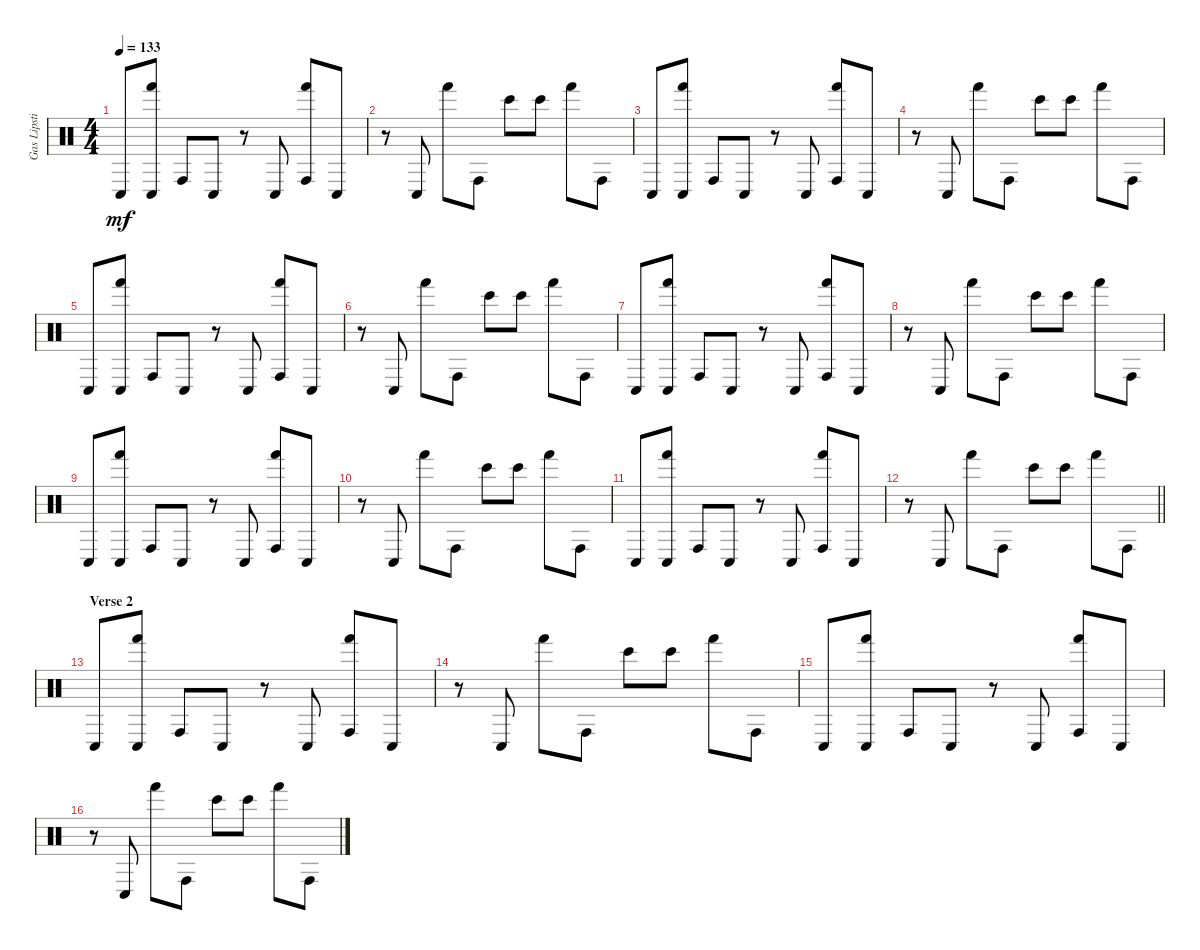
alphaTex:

\track ("Gas Lipstick (Drums)" "Gas Lipsti") {instrument percussion}
\staff {score}
\articulation defaults
\ts (4 4)
\tempo 133
\clef neutral
\ks c "Conga low (hit)".8{dy mf}
("Hand (hit)" "Conga low (hit)").8 "Conga high (hit)".8 "Conga low (hit)".8 r.8 "Conga low (hit)".8 ("Hand (hit)" "Conga high (hit)").8 "Conga low (hit)".8 |
r.8 "Conga low (hit)".8 "Hand (hit)".8 "Conga high (hit)".8 "Bongo High (hit)".8 "Bongo High (hit)".8 "Hand (hit)".8 "Conga high (hit)".8 |
"Conga low (hit)".8 ("Hand (hit)" "Conga low (hit)").8 "Conga high (hit)".8 "Conga low (hit)".8 r.8 "Conga low (hit)".8 ("Hand (hit)" "Conga high (hit)").8 "Conga low (hit)".8 |
r.8 "Conga low (hit)".8 "Hand (hit)".8 "Conga high (hit)".8 "Bongo High (hit)".8 "Bongo High (hit)".8 "Hand (hit)".8 "Conga high (hit)".8 |
"Conga low (hit)".8 ("Hand (hit)" "Conga low (hit)").8 "Conga high (hit)".8 "Conga low (hit)".8 r.8 "Conga low (hit)".8 ("Hand (hit)" "Conga high (hit)").8 "Conga low (hit)".8 |
r.8 "Conga low (hit)".8 "Hand (hit)".8 "Conga high (hit)".8 "Bongo High (hit)".8 "Bongo High (hit)".8 "Hand (hit)".8 "Conga high (hit)".8 |
"Conga low (hit)".8 ("Hand (hit)" "Conga low (hit)").8 "Conga high (hit)".8 "Conga low (hit)".8 r.8 "Conga low (hit)".8 ("Hand (hit)" "Conga high (hit)").8 "Conga low (hit)".8 |
r.8 "Conga low (hit)".8 "Hand (hit)".8 "Conga high (hit)".8 "Bongo High (hit)".8 "Bongo High (hit)".8 "Hand (hit)".8 "Conga high (hit)".8 |
"Conga low (hit)".8 ("Hand (hit)" "Conga low (hit)").8 "Conga high (hit)".8 "Conga low (hit)".8 r.8 "Conga low (hit)".8 ("Hand (hit)" "Conga high (hit)").8 "Conga low (hit)".8 |
r.8 "Conga low (hit)".8 "Hand (hit)".8 "Conga high (hit)".8 "Bongo High (hit)".8 "Bongo High (hit)".8 "Hand (hit)".8 "Conga high (hit)".8 |
"Conga low (hit)".8 ("Hand (hit)" "Conga low (hit)").8 "Conga high (hit)".8 "Conga low (hit)".8 r.8 "Conga low (hit)".8 ("Hand (hit)" "Conga high (hit)").8 "Conga low (hit)".8 |
\barLineRight lightlight
r.8 "Conga low (hit)".8 "Hand (hit)".8 "Conga high (hit)".8 "Bongo High (hit)".8 "Bongo High (hit)".8 "Hand (hit)".8 "Conga high (hit)".8 |
\section ("" "Verse 2")
"Conga low (hit)".8 ("Hand (hit)" "Conga low (hit)").8 "Conga high (hit)".8 "Conga low (hit)".8 r.8 "Conga low (hit)".8 ("Hand (hit)" "Conga high (hit)").8 "Conga low (hit)".8 |
r.8 "Conga low (hit)".8 "Hand (hit)".8 "Conga high (hit)".8 "Bongo High (hit)".8 "Bongo High (hit)".8 "Hand (hit)".8 "Conga high (hit)".8 |
"Conga low (hit)".8 ("Hand (hit)" "Conga low (hit)").8 "Conga high (hit)".8 "Conga low (hit)".8 r.8 "Conga low (hit)".8 ("Hand (hit)" "Conga high (hit)").8 "Conga low (hit)".8 |
r.8 "Conga low (hit)".8 "Hand (hit)".8 "Conga high (hit)".8 "Bongo High (hit)".8 "Bongo High (hit)".8 "Hand (hit)".8 "Conga high (hit)".8
